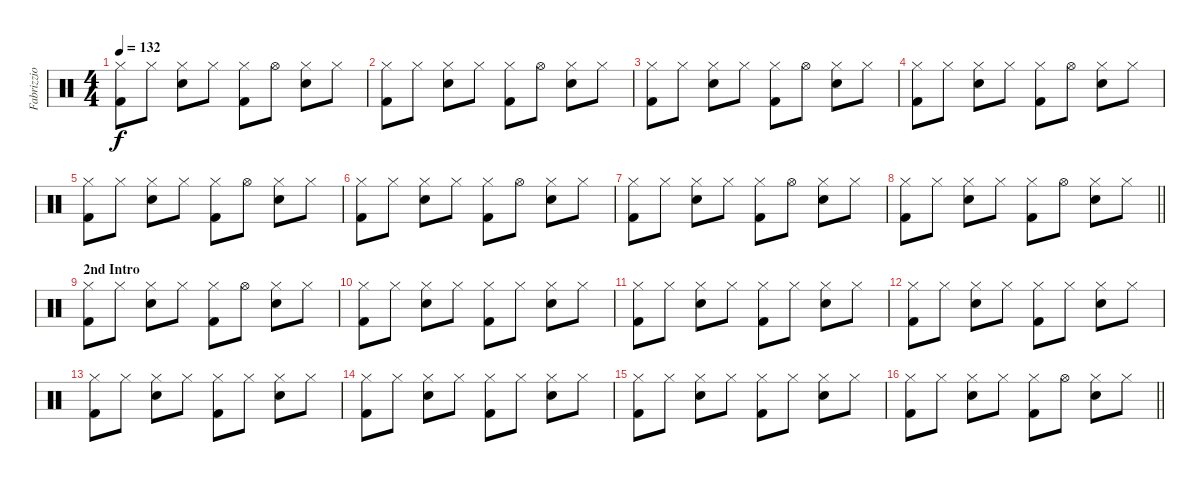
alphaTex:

\track ("Fabrizzio" "Fabrizzio") {instrument percussion}
\staff {score}
\articulation defaults
\ts (4 4)
\tempo 132
\clef neutral
\ks c
("Hi-Hat (closed)" "Kick (hit) 2").8{dy f} "Hi-Hat (closed)".8 ("Hi-Hat (closed)" "Snare (hit) 2").8 "Hi-Hat (closed)".8 ("Hi-Hat (closed)" "Kick (hit) 2").8 "Hi-Hat (open)".8 ("Hi-Hat (closed)" "Snare (hit) 2").8 "Hi-Hat (closed)".8 |
("Hi-Hat (closed)" "Kick (hit) 2").8 "Hi-Hat (closed)".8 ("Hi-Hat (closed)" "Snare (hit) 2").8 "Hi-Hat (closed)".8 ("Hi-Hat (closed)" "Kick (hit) 2").8 "Hi-Hat (open)".8 ("Hi-Hat (closed)" "Snare (hit) 2").8 "Hi-Hat (closed)".8 |
("Hi-Hat (closed)" "Kick (hit) 2").8 "Hi-Hat (closed)".8 ("Hi-Hat (closed)" "Snare (hit) 2").8 "Hi-Hat (closed)".8 ("Hi-Hat (closed)" "Kick (hit) 2").8 "Hi-Hat (open)".8 ("Hi-Hat (closed)" "Snare (hit) 2").8 "Hi-Hat (closed)".8 |
("Hi-Hat (closed)" "Kick (hit) 2").8 "Hi-Hat (closed)".8 ("Hi-Hat (closed)" "Snare (hit) 2").8 "Hi-Hat (closed)".8 ("Hi-Hat (closed)" "Kick (hit) 2").8 "Hi-Hat (open)".8 ("Hi-Hat (closed)" "Snare (hit) 2").8 "Hi-Hat (closed)".8 |
("Hi-Hat (closed)" "Kick (hit) 2").8 "Hi-Hat (closed)".8 ("Hi-Hat (closed)" "Snare (hit) 2").8 "Hi-Hat (closed)".8 ("Hi-Hat (closed)" "Kick (hit) 2").8 "Hi-Hat (open)".8 ("Hi-Hat (closed)" "Snare (hit) 2").8 "Hi-Hat (closed)".8 |
("Hi-Hat (closed)" "Kick (hit) 2").8 "Hi-Hat (closed)".8 ("Hi-Hat (closed)" "Snare (hit) 2").8 "Hi-Hat (closed)".8 ("Hi-Hat (closed)" "Kick (hit) 2").8 "Hi-Hat (open)".8 ("Hi-Hat (closed)" "Snare (hit) 2").8 "Hi-Hat (closed)".8 |
("Hi-Hat (closed)" "Kick (hit) 2").8 "Hi-Hat (closed)".8 ("Hi-Hat (closed)" "Snare (hit) 2").8 "Hi-Hat (closed)".8 ("Hi-Hat (closed)" "Kick (hit) 2").8 "Hi-Hat (open)".8 ("Hi-Hat (closed)" "Snare (hit) 2").8 "Hi-Hat (closed)".8 |
\barLineRight lightlight
("Hi-Hat (closed)" "Kick (hit) 2").8 "Hi-Hat (closed)".8 ("Hi-Hat (closed)" "Snare (hit) 2").8 "Hi-Hat (closed)".8 ("Hi-Hat (closed)" "Kick (hit) 2").8 "Hi-Hat (open)".8 ("Hi-Hat (closed)" "Snare (hit) 2").8 "Hi-Hat (closed)".8 |
\section ("" "2nd Intro")
("Hi-Hat (closed)" "Kick (hit) 2").8 "Hi-Hat (closed)".8 ("Hi-Hat (closed)" "Snare (hit) 2").8 "Hi-Hat (closed)".8 ("Hi-Hat (closed)" "Kick (hit) 2").8 "Hi-Hat (open)".8 ("Hi-Hat (closed)" "Snare (hit) 2").8 "Hi-Hat (closed)".8 |
("Hi-Hat (closed)" "Kick (hit) 2").8 "Hi-Hat (closed)".8 ("Hi-Hat (closed)" "Snare (hit) 2").8 "Hi-Hat (closed)".8 ("Hi-Hat (closed)" "Kick (hit) 2").8 "Hi-Hat (closed)".8 ("Hi-Hat (closed)" "Snare (hit) 2").8 "Hi-Hat (closed)".8 |
("Hi-Hat (closed)" "Kick (hit) 2").8 "Hi-Hat (closed)".8 ("Hi-Hat (closed)" "Snare (hit) 2").8 "Hi-Hat (closed)".8 ("Hi-Hat (closed)" "Kick (hit) 2").8 "Hi-Hat (closed)".8 ("Hi-Hat (closed)" "Snare (hit) 2").8 "Hi-Hat (closed)".8 |
("Hi-Hat (closed)" "Kick (hit) 2").8 "Hi-Hat (closed)".8 ("Hi-Hat (closed)" "Snare (hit) 2").8 "Hi-Hat (closed)".8 ("Hi-Hat (closed)" "Kick (hit) 2").8 "Hi-Hat (closed)".8 ("Hi-Hat (closed)" "Snare (hit) 2").8 "Hi-Hat (closed)".8 |
("Hi-Hat (closed)" "Kick (hit) 2").8 "Hi-Hat (closed)".8 ("Hi-Hat (closed)" "Snare (hit) 2").8 "Hi-Hat (closed)".8 ("Hi-Hat (closed)" "Kick (hit) 2").8 "Hi-Hat (closed)".8 ("Hi-Hat (closed)" "Snare (hit) 2").8 "Hi-Hat (closed)".8 |
("Hi-Hat (closed)" "Kick (hit) 2").8 "Hi-Hat (closed)".8 ("Hi-Hat (closed)" "Snare (hit) 2").8 "Hi-Hat (closed)".8 ("Hi-Hat (closed)" "Kick (hit) 2").8 "Hi-Hat (closed)".8 ("Hi-Hat (closed)" "Snare (hit) 2").8 "Hi-Hat (closed)".8 |
("Hi-Hat (closed)" "Kick (hit) 2").8 "Hi-Hat (closed)".8 ("Hi-Hat (closed)" "Snare (hit) 2").8 "Hi-Hat (closed)".8 ("Hi-Hat (closed)" "Kick (hit) 2").8 "Hi-Hat (closed)".8 ("Hi-Hat (closed)" "Snare (hit) 2").8 "Hi-Hat (closed)".8 |
\barLineRight lightlight
("Hi-Hat (closed)" "Kick (hit) 2").8 "Hi-Hat (closed)".8 ("Hi-Hat (closed)" "Snare (hit) 2").8 "Hi-Hat (closed)".8 ("Hi-Hat (closed)" "Kick (hit) 2").8 "Hi-Hat (open)".8 ("Hi-Hat (closed)" "Snare (hit) 2").8 "Hi-Hat (closed)".8
